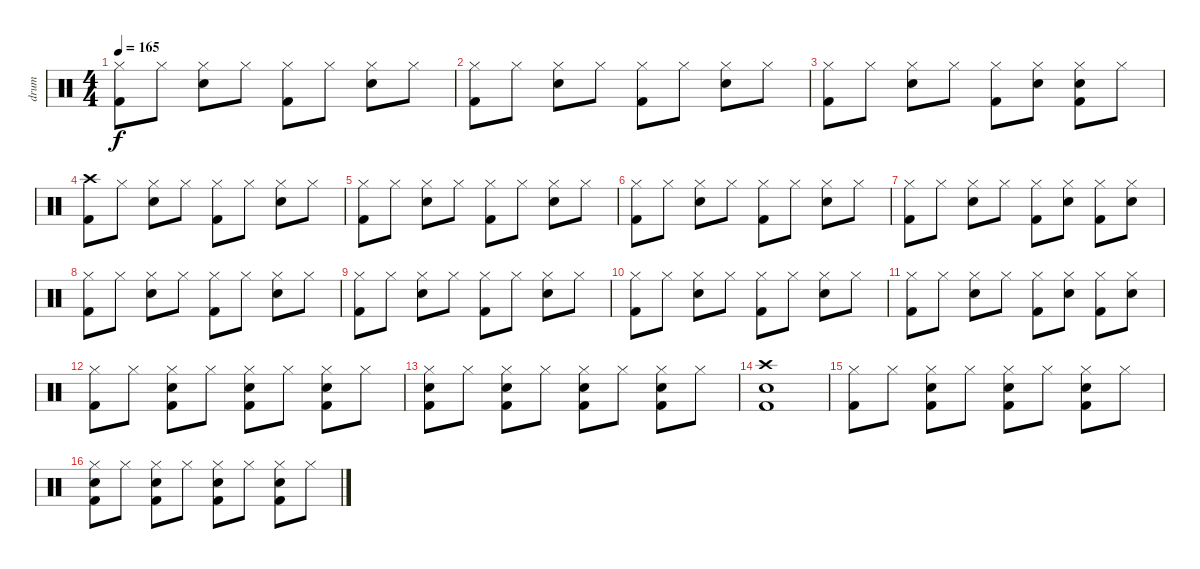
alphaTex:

\track ("drum" "drum") {instrument percussion}
\staff {score}
\articulation defaults
\ts (4 4)
\tempo 165
\clef neutral
\ks c
("Hi-Hat (closed)" "Kick (hit) 2").8{dy f} "Hi-Hat (closed)".8 ("Hi-Hat (closed)" "Snare (hit) 2").8 "Hi-Hat (closed)".8 ("Hi-Hat (closed)" "Kick (hit) 2").8 "Hi-Hat (closed)".8 ("Hi-Hat (closed)" "Snare (hit) 2").8 "Hi-Hat (closed)".8 |
("Hi-Hat (closed)" "Kick (hit) 2").8 "Hi-Hat (closed)".8 ("Hi-Hat (closed)" "Snare (hit) 2").8 "Hi-Hat (closed)".8 ("Hi-Hat (closed)" "Kick (hit) 2").8 "Hi-Hat (closed)".8 ("Hi-Hat (closed)" "Snare (hit) 2").8 "Hi-Hat (closed)".8 |
("Hi-Hat (closed)" "Kick (hit) 2").8 "Hi-Hat (closed)".8 ("Hi-Hat (closed)" "Snare (hit) 2").8 "Hi-Hat (closed)".8 ("Hi-Hat (closed)" "Kick (hit) 2").8 ("Hi-Hat (closed)" "Snare (hit) 2").8 ("Hi-Hat (closed)" "Snare (hit) 2" "Kick (hit) 2").8 "Hi-Hat (closed)".8 |
("Crash high (hit)" "Kick (hit) 2").8 "Hi-Hat (closed)".8 ("Hi-Hat (closed)" "Snare (hit) 2").8 "Hi-Hat (closed)".8 ("Hi-Hat (closed)" "Kick (hit) 2").8 "Hi-Hat (closed)".8 ("Hi-Hat (closed)" "Snare (hit) 2").8 "Hi-Hat (closed)".8 |
("Hi-Hat (closed)" "Kick (hit) 2").8 "Hi-Hat (closed)".8 ("Hi-Hat (closed)" "Snare (hit) 2").8 "Hi-Hat (closed)".8 ("Hi-Hat (closed)" "Kick (hit) 2").8 "Hi-Hat (closed)".8 ("Hi-Hat (closed)" "Snare (hit) 2").8 "Hi-Hat (closed)".8 |
("Hi-Hat (closed)" "Kick (hit) 2").8 "Hi-Hat (closed)".8 ("Hi-Hat (closed)" "Snare (hit) 2").8 "Hi-Hat (closed)".8 ("Hi-Hat (closed)" "Kick (hit) 2").8 "Hi-Hat (closed)".8 ("Hi-Hat (closed)" "Snare (hit) 2").8 "Hi-Hat (closed)".8 |
("Hi-Hat (closed)" "Kick (hit) 2").8 "Hi-Hat (closed)".8 ("Hi-Hat (closed)" "Snare (hit) 2").8 "Hi-Hat (closed)".8 ("Hi-Hat (closed)" "Kick (hit) 2").8 ("Hi-Hat (closed)" "Snare (hit) 2").8 ("Hi-Hat (closed)" "Kick (hit) 2").8 ("Hi-Hat (closed)" "Snare (hit) 2").8 |
("Hi-Hat (closed)" "Kick (hit) 2").8 "Hi-Hat (closed)".8 ("Hi-Hat (closed)" "Snare (hit) 2").8 "Hi-Hat (closed)".8 ("Hi-Hat (closed)" "Kick (hit) 2").8 "Hi-Hat (closed)".8 ("Hi-Hat (closed)" "Snare (hit) 2").8 "Hi-Hat (closed)".8 |
("Hi-Hat (closed)" "Kick (hit) 2").8 "Hi-Hat (closed)".8 ("Hi-Hat (closed)" "Snare (hit) 2").8 "Hi-Hat (closed)".8 ("Hi-Hat (closed)" "Kick (hit) 2").8 "Hi-Hat (closed)".8 ("Hi-Hat (closed)" "Snare (hit) 2").8 "Hi-Hat (closed)".8 |
("Hi-Hat (closed)" "Kick (hit) 2").8 "Hi-Hat (closed)".8 ("Hi-Hat (closed)" "Snare (hit) 2").8 "Hi-Hat (closed)".8 ("Hi-Hat (closed)" "Kick (hit) 2").8 "Hi-Hat (closed)".8 ("Hi-Hat (closed)" "Snare (hit) 2").8 "Hi-Hat (closed)".8 |
("Hi-Hat (closed)" "Kick (hit) 2").8 "Hi-Hat (closed)".8 ("Hi-Hat (closed)" "Snare (hit) 2").8 "Hi-Hat (closed)".8 ("Hi-Hat (closed)" "Kick (hit) 2").8 ("Hi-Hat (closed)" "Snare (hit) 2").8 ("Hi-Hat (closed)" "Kick (hit) 2").8 ("Hi-Hat (closed)" "Snare (hit) 2").8 |
("Hi-Hat (closed)" "Kick (hit) 2").8 "Hi-Hat (closed)".8 ("Hi-Hat (closed)" "Snare (hit) 2" "Kick (hit) 2").8 "Hi-Hat (closed)".8 ("Hi-Hat (closed)" "Snare (hit) 2" "Kick (hit) 2").8 "Hi-Hat (closed)".8 ("Hi-Hat (closed)" "Snare (hit) 2" "Kick (hit) 2").8 "Hi-Hat (closed)".8 |
("Hi-Hat (closed)" "Snare (hit) 2" "Kick (hit) 2").8 "Hi-Hat (closed)".8 ("Hi-Hat (closed)" "Snare (hit) 2" "Kick (hit) 2").8 "Hi-Hat (closed)".8 ("Hi-Hat (closed)" "Snare (hit) 2" "Kick (hit) 2").8 "Hi-Hat (closed)".8 ("Hi-Hat (closed)" "Snare (hit) 2" "Kick (hit) 2").8 "Hi-Hat (closed)".8 |
("Crash high (hit)" "Snare (hit) 2" "Kick (hit) 2").1 |
("Hi-Hat (closed)" "Kick (hit) 2").8 "Hi-Hat (closed)".8 ("Hi-Hat (closed)" "Snare (hit) 2" "Kick (hit) 2").8 "Hi-Hat (closed)".8 ("Hi-Hat (closed)" "Snare (hit) 2" "Kick (hit) 2").8 "Hi-Hat (closed)".8 ("Hi-Hat (closed)" "Snare (hit) 2" "Kick (hit) 2").8 "Hi-Hat (closed)".8 |
("Hi-Hat (closed)" "Snare (hit) 2" "Kick (hit) 2").8 "Hi-Hat (closed)".8 ("Hi-Hat (closed)" "Snare (hit) 2" "Kick (hit) 2").8 "Hi-Hat (closed)".8 ("Hi-Hat (closed)" "Snare (hit) 2" "Kick (hit) 2").8 "Hi-Hat (closed)".8 ("Hi-Hat (closed)" "Snare (hit) 2" "Kick (hit) 2").8 "Hi-Hat (closed)".8
